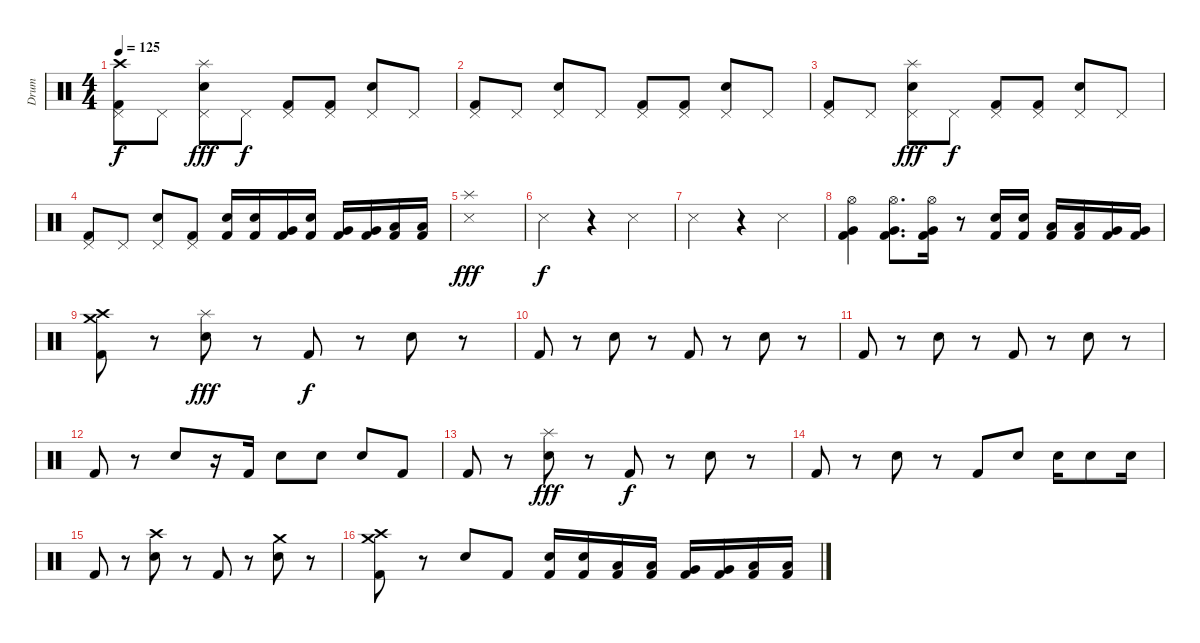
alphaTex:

\track ("Drum" "Drum") {instrument percussion}
\staff {score}
\articulation defaults
\ts (4 4)
\tempo 125
\clef neutral
\ks c
("Crash high (hit)" "Pedal Hi-Hat (hit)" "Kick (hit) 2").8{dy f} "Pedal Hi-Hat (hit)".8 ("Electric Snare (hit)" "Splash (hit)" "Pedal Hi-Hat (hit)").8{dy fff} "Pedal Hi-Hat (hit)".8{dy f} ("Pedal Hi-Hat (hit)" "Kick (hit) 2").8 ("Pedal Hi-Hat (hit)" "Kick (hit) 2").8 ("Electric Snare (hit)" "Pedal Hi-Hat (hit)").8 "Pedal Hi-Hat (hit)".8 |
("Pedal Hi-Hat (hit)" "Kick (hit) 2").8 "Pedal Hi-Hat (hit)".8 ("Electric Snare (hit)" "Pedal Hi-Hat (hit)").8 "Pedal Hi-Hat (hit)".8 ("Pedal Hi-Hat (hit)" "Kick (hit) 2").8 ("Pedal Hi-Hat (hit)" "Kick (hit) 2").8 ("Electric Snare (hit)" "Pedal Hi-Hat (hit)").8 "Pedal Hi-Hat (hit)".8 |
("Pedal Hi-Hat (hit)" "Kick (hit) 2").8 "Pedal Hi-Hat (hit)".8 ("Electric Snare (hit)" "Splash (hit)" "Pedal Hi-Hat (hit)").8{dy fff} "Pedal Hi-Hat (hit)".8{dy f} ("Pedal Hi-Hat (hit)" "Kick (hit) 2").8 ("Pedal Hi-Hat (hit)" "Kick (hit) 2").8 ("Electric Snare (hit)" "Pedal Hi-Hat (hit)").8 "Pedal Hi-Hat (hit)".8 |
("Pedal Hi-Hat (hit)" "Kick (hit) 2").8 "Pedal Hi-Hat (hit)".8 ("Electric Snare (hit)" "Pedal Hi-Hat (hit)").8 ("Pedal Hi-Hat (hit)" "Kick (hit) 2").8 ("Electric Snare (hit)" "Kick (hit) 2").16 ("Electric Snare (hit)" "Kick (hit) 2").16 ("Very Low Tom (hit)" "Kick (hit) 2").16 ("Electric Snare (hit)" "Kick (hit) 2").16 ("Very Low Tom (hit)" "Kick (hit) 2").16 ("Very Low Tom (hit)" "Kick (hit) 2").16 ("Low Floor Tom (hit)" "Kick (hit) 2").16 ("Low Floor Tom (hit)" "Kick (hit) 2").16 |
("Splash (hit)" "Snare (side stick) 3").1{dy fff} |
"Snare (side stick) 3".2{dy f} r.4 "Snare (side stick) 3".4 |
"Snare (side stick) 3".2 r.4 "Metronome (hit)".4 |
("Very Low Tom (hit)" "Hi-Hat (open)" "Kick (hit) 2").4 ("Very Low Tom (hit)" "Hi-Hat (open)" "Kick (hit) 2").8{d} ("Very Low Tom (hit)" "Hi-Hat (open)" "Kick (hit) 2").16 r.8 ("Electric Snare (hit)" "Kick (hit) 2").16 ("Electric Snare (hit)" "Kick (hit) 2").16 ("Low Tom (hit)" "Kick (hit) 2").16 ("Low Tom (hit)" "Kick (hit) 2").16 ("Very Low Tom (hit)" "Kick (hit) 2").16 ("Very Low Tom (hit)" "Kick (hit) 2").16 |
("Crash medium (hit)" "Crash high (hit)" "Kick (hit) 2").8 r.8 ("Electric Snare (hit)" "Splash (hit)").8{dy fff} r.8 "Kick (hit) 2".8{dy f} r.8 "Electric Snare (hit)".8 r.8 |
"Kick (hit) 2".8 r.8 "Electric Snare (hit)".8 r.8 "Kick (hit) 2".8 r.8 "Electric Snare (hit)".8 r.8 |
"Kick (hit) 2".8 r.8 "Electric Snare (hit)".8 r.8 "Kick (hit) 2".8 r.8 "Electric Snare (hit)".8 r.8 |
"Kick (hit) 2".8 r.8 "Electric Snare (hit)".8 r.16 "Kick (hit) 2".16 "Electric Snare (hit)".8 "Electric Snare (hit)".8 "Electric Snare (hit)".8 "Kick (hit) 2".8 |
"Kick (hit) 2".8 r.8 ("Electric Snare (hit)" "Splash (hit)").8{dy fff} r.8 "Kick (hit) 2".8{dy f} r.8 "Electric Snare (hit)".8 r.8 |
"Kick (hit) 2".8 r.8 "Electric Snare (hit)".8 r.8 "Kick (hit) 2".8 "Electric Snare (hit)".8 "Electric Snare (hit)".16 "Electric Snare (hit)".8 "Electric Snare (hit)".16 |
"Kick (hit) 2".8 r.8 ("Electric Snare (hit)" "Crash high (hit)").8 r.8 "Kick (hit) 2".8 r.8 ("Electric Snare (hit)" "Crash medium (hit)").8 r.8 |
("Crash medium (hit)" "Crash high (hit)" "Kick (hit) 2").8 r.8 "Electric Snare (hit)".8 "Kick (hit) 2".8 ("Electric Snare (hit)" "Kick (hit) 2").16 ("Electric Snare (hit)" "Kick (hit) 2").16 ("Low Tom (hit)" "Kick (hit) 2").16 ("Low Tom (hit)" "Kick (hit) 2").16 ("Very Low Tom (hit)" "Kick (hit) 2").16 ("Very Low Tom (hit)" "Kick (hit) 2").16 ("Low Floor Tom (hit)" "Kick (hit) 2").16 ("Low Floor Tom (hit)" "Kick (hit) 2").16
